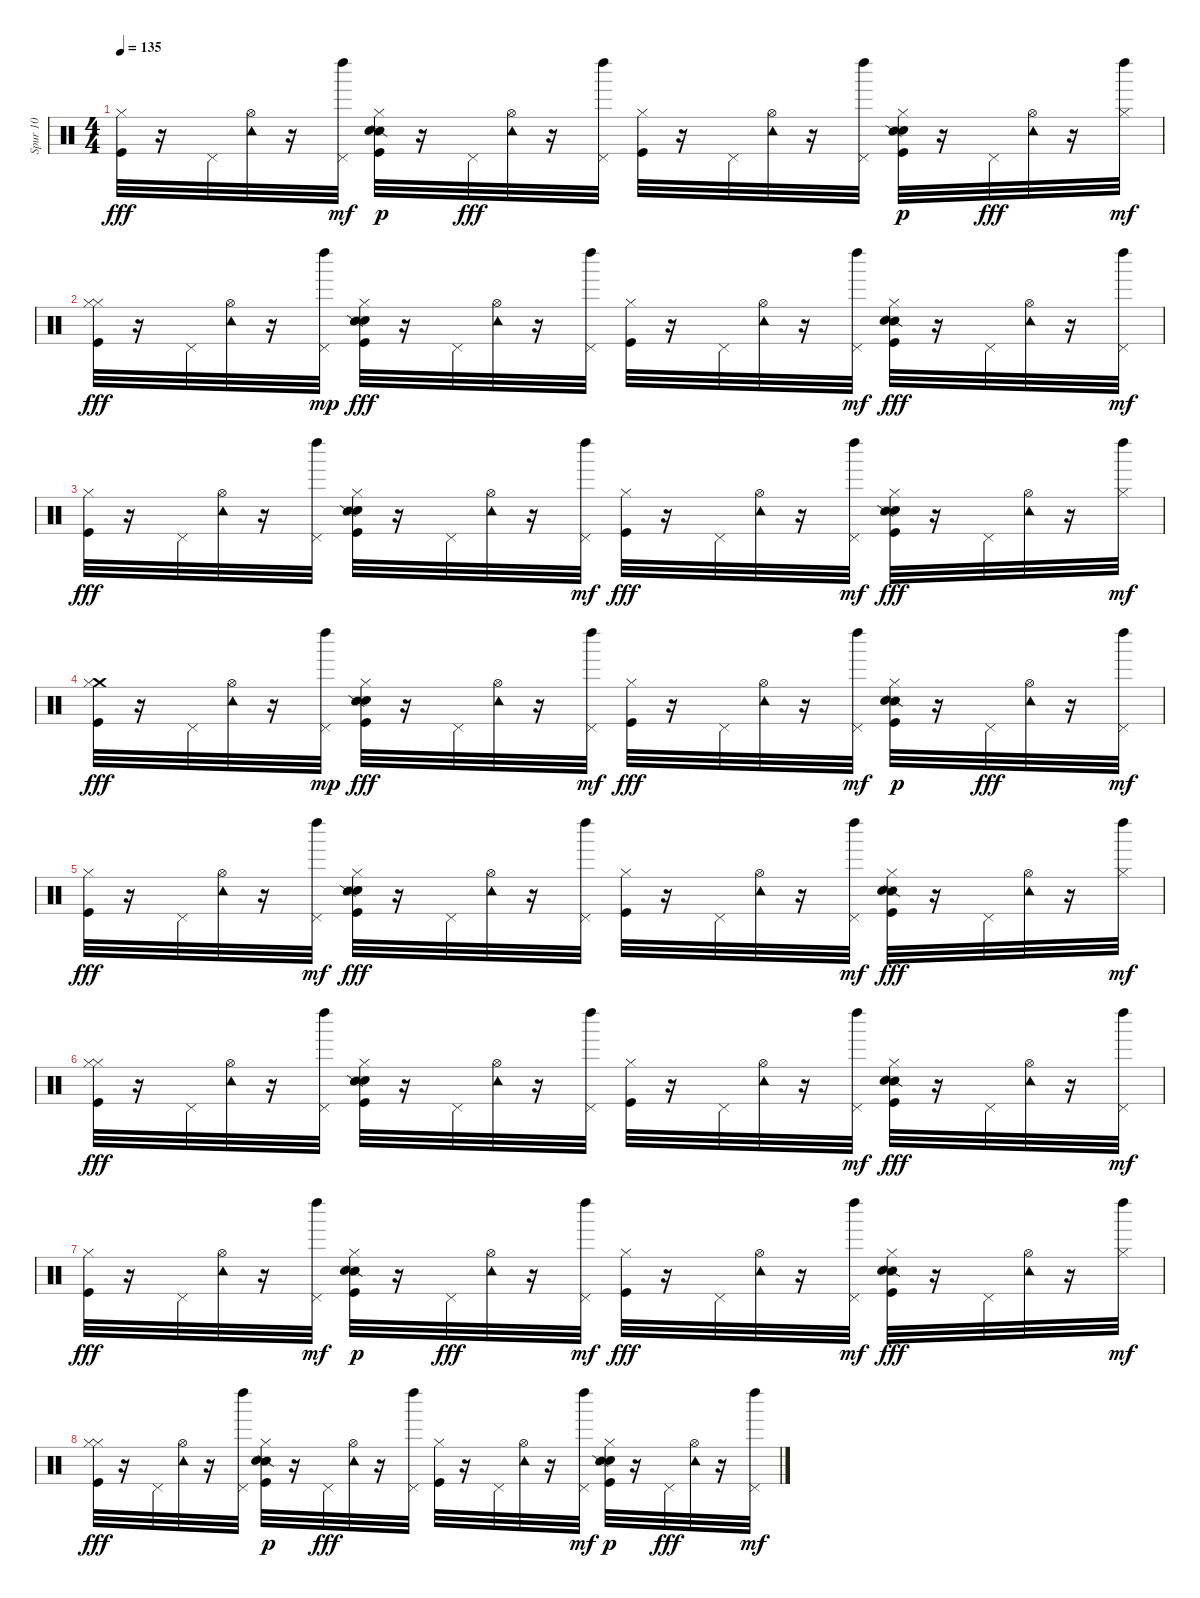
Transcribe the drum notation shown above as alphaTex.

\track ("Spur 10" "Spur 10") {instrument percussion}
\staff {score}
\articulation defaults
\ts (4 4)
\tempo 135
\clef neutral
\ks c
("Kick (hit)" "Hi-Hat (closed)").32{dy fff} r.16 "Pedal Hi-Hat (hit)".32 ("Hi-Hat (open)" "Tambourine (hit)").32 r.16 ("Pedal Hi-Hat (hit)" "Left Maraca (hit)").32{dy mf} ("Snare (side stick) 2" "Kick (hit)" "Hi-Hat (closed)" "Hand Clap (hit)").32{dy p} r.16 "Pedal Hi-Hat (hit)".32{dy fff} ("Hi-Hat (open)" "Tambourine (hit)").32 r.16 ("Left Maraca (hit)" "Pedal Hi-Hat (hit)").32 ("Hi-Hat (closed)" "Kick (hit)").32 r.16 "Pedal Hi-Hat (hit)".32 ("Tambourine (hit)" "Hi-Hat (open)").32 r.16 ("Left Maraca (hit)" "Pedal Hi-Hat (hit)").32 ("Kick (hit)" "Hi-Hat (closed)" "Hand Clap (hit)" "Snare (side stick) 2").32{dy p} r.16 "Pedal Hi-Hat (hit)".32{dy fff} ("Hi-Hat (open)" "Tambourine (hit)").32 r.16 ("Hi-Hat (closed)" "Left Maraca (hit)").32{dy mf} |
("Kick (hit)" "Hi-Hat (closed)" "Hi-Hat (closed)").32{dy fff} r.16 "Pedal Hi-Hat (hit)".32 ("Hi-Hat (open)" "Tambourine (hit)").32 r.16 ("Pedal Hi-Hat (hit)" "Left Maraca (hit)").32{dy mp} ("Hand Clap (hit)" "Hi-Hat (closed)" "Snare (side stick) 2" "Kick (hit)").32{dy fff} r.16 "Pedal Hi-Hat (hit)".32 ("Hi-Hat (open)" "Tambourine (hit)").32 r.16 ("Left Maraca (hit)" "Pedal Hi-Hat (hit)").32 ("Hi-Hat (closed)" "Kick (hit)").32 r.16 "Pedal Hi-Hat (hit)".32 ("Hi-Hat (open)" "Tambourine (hit)").32 r.16 ("Left Maraca (hit)" "Pedal Hi-Hat (hit)").32{dy mf} ("Snare (side stick) 2" "Hi-Hat (closed)" "Hand Clap (hit)" "Kick (hit)").32{dy fff} r.16 "Pedal Hi-Hat (hit)".32 ("Tambourine (hit)" "Hi-Hat (open)").32 r.16 ("Left Maraca (hit)" "Pedal Hi-Hat (hit)").32{dy mf} |
("Kick (hit)" "Hi-Hat (closed)").32{dy fff} r.16 "Pedal Hi-Hat (hit)".32 ("Hi-Hat (open)" "Tambourine (hit)").32 r.16 ("Left Maraca (hit)" "Pedal Hi-Hat (hit)").32 ("Hi-Hat (closed)" "Hand Clap (hit)" "Kick (hit)" "Snare (side stick) 2").32 r.16 "Pedal Hi-Hat (hit)".32 ("Tambourine (hit)" "Hi-Hat (open)").32 r.16 ("Pedal Hi-Hat (hit)" "Left Maraca (hit)").32{dy mf} ("Hi-Hat (closed)" "Kick (hit)").32{dy fff} r.16 "Pedal Hi-Hat (hit)".32 ("Tambourine (hit)" "Hi-Hat (open)").32 r.16 ("Pedal Hi-Hat (hit)" "Left Maraca (hit)").32{dy mf} ("Kick (hit)" "Hand Clap (hit)" "Snare (side stick) 2" "Hi-Hat (closed)").32{dy fff} r.16 "Pedal Hi-Hat (hit)".32 ("Hi-Hat (open)" "Tambourine (hit)").32 r.16 ("Left Maraca (hit)" "Hi-Hat (closed)").32{dy mf} |
("Crash medium (hit)" "Kick (hit)" "Hi-Hat (closed)").32{dy fff} r.16 "Pedal Hi-Hat (hit)".32 ("Tambourine (hit)" "Hi-Hat (open)").32 r.16 ("Pedal Hi-Hat (hit)" "Left Maraca (hit)").32{dy mp} ("Hand Clap (hit)" "Snare (side stick) 2" "Kick (hit)" "Hi-Hat (closed)").32{dy fff} r.16 "Pedal Hi-Hat (hit)".32 ("Hi-Hat (open)" "Tambourine (hit)").32 r.16 ("Pedal Hi-Hat (hit)" "Left Maraca (hit)").32{dy mf} ("Hi-Hat (closed)" "Kick (hit)").32{dy fff} r.16 "Pedal Hi-Hat (hit)".32 ("Hi-Hat (open)" "Tambourine (hit)").32 r.16 ("Pedal Hi-Hat (hit)" "Left Maraca (hit)").32{dy mf} ("Snare (side stick) 2" "Hi-Hat (closed)" "Kick (hit)" "Hand Clap (hit)").32{dy p} r.16 "Pedal Hi-Hat (hit)".32{dy fff} ("Hi-Hat (open)" "Tambourine (hit)").32 r.16 ("Left Maraca (hit)" "Pedal Hi-Hat (hit)").32{dy mf} |
("Hi-Hat (closed)" "Kick (hit)").32{dy fff} r.16 "Pedal Hi-Hat (hit)".32 ("Hi-Hat (open)" "Tambourine (hit)").32 r.16 ("Pedal Hi-Hat (hit)" "Left Maraca (hit)").32{dy mf} ("Hi-Hat (closed)" "Hand Clap (hit)" "Snare (side stick) 2" "Kick (hit)").32{dy fff} r.16 "Pedal Hi-Hat (hit)".32 ("Hi-Hat (open)" "Tambourine (hit)").32 r.16 ("Left Maraca (hit)" "Pedal Hi-Hat (hit)").32 ("Kick (hit)" "Hi-Hat (closed)").32 r.16 "Pedal Hi-Hat (hit)".32 ("Tambourine (hit)" "Hi-Hat (open)").32 r.16 ("Pedal Hi-Hat (hit)" "Left Maraca (hit)").32{dy mf} ("Kick (hit)" "Snare (side stick) 2" "Hand Clap (hit)" "Hi-Hat (closed)").32{dy fff} r.16 "Pedal Hi-Hat (hit)".32 ("Hi-Hat (open)" "Tambourine (hit)").32 r.16 ("Hi-Hat (closed)" "Left Maraca (hit)").32{dy mf} |
("Hi-Hat (closed)" "Kick (hit)" "Hi-Hat (closed)").32{dy fff} r.16 "Pedal Hi-Hat (hit)".32 ("Hi-Hat (open)" "Tambourine (hit)").32 r.16 ("Left Maraca (hit)" "Pedal Hi-Hat (hit)").32 ("Hand Clap (hit)" "Snare (side stick) 2" "Hi-Hat (closed)" "Kick (hit)").32 r.16 "Pedal Hi-Hat (hit)".32 ("Tambourine (hit)" "Hi-Hat (open)").32 r.16 ("Left Maraca (hit)" "Pedal Hi-Hat (hit)").32 ("Kick (hit)" "Hi-Hat (closed)").32 r.16 "Pedal Hi-Hat (hit)".32 ("Tambourine (hit)" "Hi-Hat (open)").32 r.16 ("Pedal Hi-Hat (hit)" "Left Maraca (hit)").32{dy mf} ("Snare (side stick) 2" "Hand Clap (hit)" "Hi-Hat (closed)" "Kick (hit)").32{dy fff} r.16 "Pedal Hi-Hat (hit)".32 ("Hi-Hat (open)" "Tambourine (hit)").32 r.16 ("Left Maraca (hit)" "Pedal Hi-Hat (hit)").32{dy mf} |
("Hi-Hat (closed)" "Kick (hit)").32{dy fff} r.16 "Pedal Hi-Hat (hit)".32 ("Hi-Hat (open)" "Tambourine (hit)").32 r.16 ("Pedal Hi-Hat (hit)" "Left Maraca (hit)").32{dy mf} ("Snare (side stick) 2" "Kick (hit)" "Hi-Hat (closed)" "Hand Clap (hit)").32{dy p} r.16 "Pedal Hi-Hat (hit)".32{dy fff} ("Hi-Hat (open)" "Tambourine (hit)").32 r.16 ("Pedal Hi-Hat (hit)" "Left Maraca (hit)").32{dy mf} ("Hi-Hat (closed)" "Kick (hit)").32{dy fff} r.16 "Pedal Hi-Hat (hit)".32 ("Tambourine (hit)" "Hi-Hat (open)").32 r.16 ("Pedal Hi-Hat (hit)" "Left Maraca (hit)").32{dy mf} ("Snare (side stick) 2" "Hand Clap (hit)" "Kick (hit)" "Hi-Hat (closed)").32{dy fff} r.16 "Pedal Hi-Hat (hit)".32 ("Tambourine (hit)" "Hi-Hat (open)").32 r.16 ("Hi-Hat (closed)" "Left Maraca (hit)").32{dy mf} |
("Hi-Hat (closed)" "Kick (hit)" "Hi-Hat (closed)").32{dy fff} r.16 "Pedal Hi-Hat (hit)".32 ("Tambourine (hit)" "Hi-Hat (open)").32 r.16 ("Left Maraca (hit)" "Pedal Hi-Hat (hit)").32 ("Snare (side stick) 2" "Kick (hit)" "Hi-Hat (closed)" "Hand Clap (hit)").32{dy p} r.16 "Pedal Hi-Hat (hit)".32{dy fff} ("Tambourine (hit)" "Hi-Hat (open)").32 r.16 ("Left Maraca (hit)" "Pedal Hi-Hat (hit)").32 ("Kick (hit)" "Hi-Hat (closed)").32 r.16 "Pedal Hi-Hat (hit)".32 ("Hi-Hat (open)" "Tambourine (hit)").32 r.16 ("Pedal Hi-Hat (hit)" "Left Maraca (hit)").32{dy mf} ("Hi-Hat (closed)" "Kick (hit)" "Hand Clap (hit)" "Snare (side stick) 2").32{dy p} r.16 "Pedal Hi-Hat (hit)".32{dy fff} ("Tambourine (hit)" "Hi-Hat (open)").32 r.16 ("Left Maraca (hit)" "Pedal Hi-Hat (hit)").32{dy mf}
